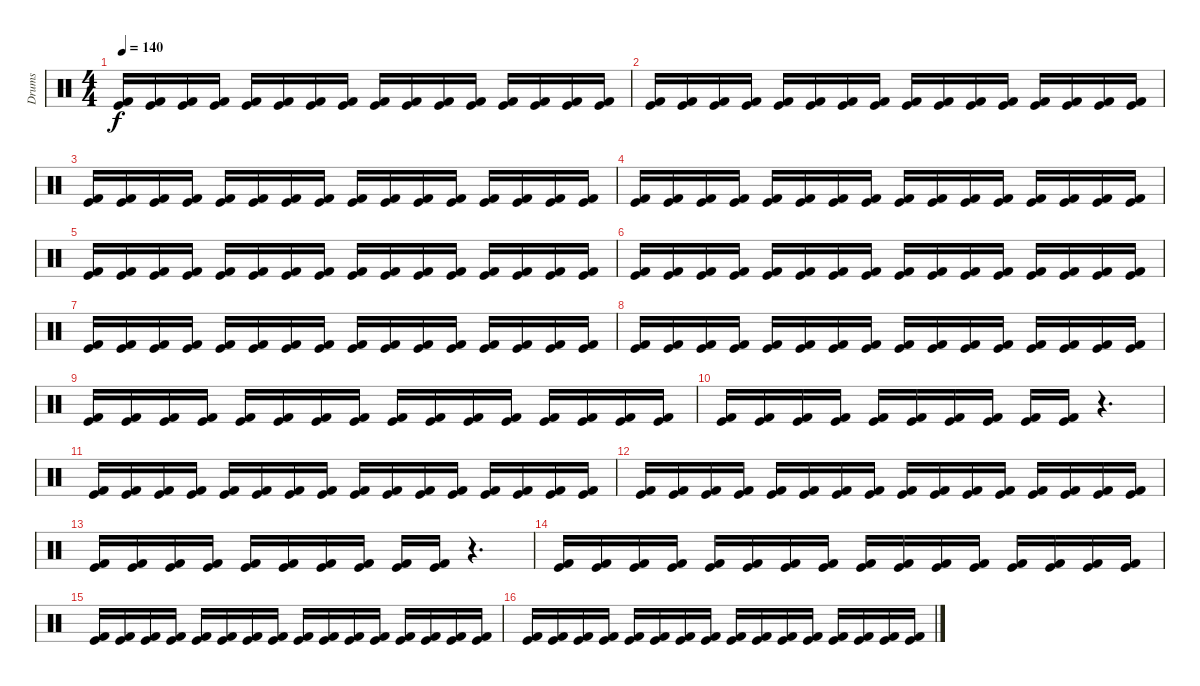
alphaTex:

\track ("Drums" "Drums") {instrument percussion}
\staff {score}
\articulation defaults
\ts (4 4)
\tempo 140
\clef neutral
\ks c
("Kick (hit) 2" "Kick (hit)").16{dy f} ("Kick (hit) 2" "Kick (hit)").16 ("Kick (hit) 2" "Kick (hit)").16 ("Kick (hit) 2" "Kick (hit)").16 ("Kick (hit) 2" "Kick (hit)").16 ("Kick (hit) 2" "Kick (hit)").16 ("Kick (hit) 2" "Kick (hit)").16 ("Kick (hit) 2" "Kick (hit)").16 ("Kick (hit) 2" "Kick (hit)").16 ("Kick (hit) 2" "Kick (hit)").16 ("Kick (hit) 2" "Kick (hit)").16 ("Kick (hit) 2" "Kick (hit)").16 ("Kick (hit) 2" "Kick (hit)").16 ("Kick (hit) 2" "Kick (hit)").16 ("Kick (hit) 2" "Kick (hit)").16 ("Kick (hit) 2" "Kick (hit)").16 |
("Kick (hit) 2" "Kick (hit)").16 ("Kick (hit) 2" "Kick (hit)").16 ("Kick (hit) 2" "Kick (hit)").16 ("Kick (hit) 2" "Kick (hit)").16 ("Kick (hit) 2" "Kick (hit)").16 ("Kick (hit) 2" "Kick (hit)").16 ("Kick (hit) 2" "Kick (hit)").16 ("Kick (hit) 2" "Kick (hit)").16 ("Kick (hit) 2" "Kick (hit)").16 ("Kick (hit) 2" "Kick (hit)").16 ("Kick (hit) 2" "Kick (hit)").16 ("Kick (hit) 2" "Kick (hit)").16 ("Kick (hit) 2" "Kick (hit)").16 ("Kick (hit) 2" "Kick (hit)").16 ("Kick (hit) 2" "Kick (hit)").16 ("Kick (hit) 2" "Kick (hit)").16 |
("Kick (hit) 2" "Kick (hit)").16 ("Kick (hit) 2" "Kick (hit)").16 ("Kick (hit) 2" "Kick (hit)").16 ("Kick (hit) 2" "Kick (hit)").16 ("Kick (hit) 2" "Kick (hit)").16 ("Kick (hit) 2" "Kick (hit)").16 ("Kick (hit) 2" "Kick (hit)").16 ("Kick (hit) 2" "Kick (hit)").16 ("Kick (hit) 2" "Kick (hit)").16 ("Kick (hit) 2" "Kick (hit)").16 ("Kick (hit) 2" "Kick (hit)").16 ("Kick (hit) 2" "Kick (hit)").16 ("Kick (hit) 2" "Kick (hit)").16 ("Kick (hit) 2" "Kick (hit)").16 ("Kick (hit) 2" "Kick (hit)").16 ("Kick (hit) 2" "Kick (hit)").16 |
("Kick (hit) 2" "Kick (hit)").16 ("Kick (hit) 2" "Kick (hit)").16 ("Kick (hit) 2" "Kick (hit)").16 ("Kick (hit) 2" "Kick (hit)").16 ("Kick (hit) 2" "Kick (hit)").16 ("Kick (hit) 2" "Kick (hit)").16 ("Kick (hit) 2" "Kick (hit)").16 ("Kick (hit) 2" "Kick (hit)").16 ("Kick (hit) 2" "Kick (hit)").16 ("Kick (hit) 2" "Kick (hit)").16 ("Kick (hit) 2" "Kick (hit)").16 ("Kick (hit) 2" "Kick (hit)").16 ("Kick (hit) 2" "Kick (hit)").16 ("Kick (hit) 2" "Kick (hit)").16 ("Kick (hit) 2" "Kick (hit)").16 ("Kick (hit) 2" "Kick (hit)").16 |
("Kick (hit) 2" "Kick (hit)").16 ("Kick (hit) 2" "Kick (hit)").16 ("Kick (hit) 2" "Kick (hit)").16 ("Kick (hit) 2" "Kick (hit)").16 ("Kick (hit) 2" "Kick (hit)").16 ("Kick (hit) 2" "Kick (hit)").16 ("Kick (hit) 2" "Kick (hit)").16 ("Kick (hit) 2" "Kick (hit)").16 ("Kick (hit) 2" "Kick (hit)").16 ("Kick (hit) 2" "Kick (hit)").16 ("Kick (hit) 2" "Kick (hit)").16 ("Kick (hit) 2" "Kick (hit)").16 ("Kick (hit) 2" "Kick (hit)").16 ("Kick (hit) 2" "Kick (hit)").16 ("Kick (hit) 2" "Kick (hit)").16 ("Kick (hit) 2" "Kick (hit)").16 |
("Kick (hit) 2" "Kick (hit)").16 ("Kick (hit) 2" "Kick (hit)").16 ("Kick (hit) 2" "Kick (hit)").16 ("Kick (hit) 2" "Kick (hit)").16 ("Kick (hit) 2" "Kick (hit)").16 ("Kick (hit) 2" "Kick (hit)").16 ("Kick (hit) 2" "Kick (hit)").16 ("Kick (hit) 2" "Kick (hit)").16 ("Kick (hit) 2" "Kick (hit)").16 ("Kick (hit) 2" "Kick (hit)").16 ("Kick (hit) 2" "Kick (hit)").16 ("Kick (hit) 2" "Kick (hit)").16 ("Kick (hit) 2" "Kick (hit)").16 ("Kick (hit) 2" "Kick (hit)").16 ("Kick (hit) 2" "Kick (hit)").16 ("Kick (hit) 2" "Kick (hit)").16 |
("Kick (hit) 2" "Kick (hit)").16 ("Kick (hit) 2" "Kick (hit)").16 ("Kick (hit) 2" "Kick (hit)").16 ("Kick (hit) 2" "Kick (hit)").16 ("Kick (hit) 2" "Kick (hit)").16 ("Kick (hit) 2" "Kick (hit)").16 ("Kick (hit) 2" "Kick (hit)").16 ("Kick (hit) 2" "Kick (hit)").16 ("Kick (hit) 2" "Kick (hit)").16 ("Kick (hit) 2" "Kick (hit)").16 ("Kick (hit) 2" "Kick (hit)").16 ("Kick (hit) 2" "Kick (hit)").16 ("Kick (hit) 2" "Kick (hit)").16 ("Kick (hit) 2" "Kick (hit)").16 ("Kick (hit) 2" "Kick (hit)").16 ("Kick (hit) 2" "Kick (hit)").16 |
("Kick (hit) 2" "Kick (hit)").16 ("Kick (hit) 2" "Kick (hit)").16 ("Kick (hit) 2" "Kick (hit)").16 ("Kick (hit) 2" "Kick (hit)").16 ("Kick (hit) 2" "Kick (hit)").16 ("Kick (hit) 2" "Kick (hit)").16 ("Kick (hit) 2" "Kick (hit)").16 ("Kick (hit) 2" "Kick (hit)").16 ("Kick (hit) 2" "Kick (hit)").16 ("Kick (hit) 2" "Kick (hit)").16 ("Kick (hit) 2" "Kick (hit)").16 ("Kick (hit) 2" "Kick (hit)").16 ("Kick (hit) 2" "Kick (hit)").16 ("Kick (hit) 2" "Kick (hit)").16 ("Kick (hit) 2" "Kick (hit)").16 ("Kick (hit) 2" "Kick (hit)").16 |
("Kick (hit) 2" "Kick (hit)").16 ("Kick (hit) 2" "Kick (hit)").16 ("Kick (hit) 2" "Kick (hit)").16 ("Kick (hit) 2" "Kick (hit)").16 ("Kick (hit) 2" "Kick (hit)").16 ("Kick (hit) 2" "Kick (hit)").16 ("Kick (hit) 2" "Kick (hit)").16 ("Kick (hit) 2" "Kick (hit)").16 ("Kick (hit) 2" "Kick (hit)").16 ("Kick (hit) 2" "Kick (hit)").16 ("Kick (hit) 2" "Kick (hit)").16 ("Kick (hit) 2" "Kick (hit)").16 ("Kick (hit) 2" "Kick (hit)").16 ("Kick (hit) 2" "Kick (hit)").16 ("Kick (hit) 2" "Kick (hit)").16 ("Kick (hit) 2" "Kick (hit)").16 |
("Kick (hit) 2" "Kick (hit)").16 ("Kick (hit) 2" "Kick (hit)").16 ("Kick (hit) 2" "Kick (hit)").16 ("Kick (hit) 2" "Kick (hit)").16 ("Kick (hit) 2" "Kick (hit)").16 ("Kick (hit) 2" "Kick (hit)").16 ("Kick (hit) 2" "Kick (hit)").16 ("Kick (hit) 2" "Kick (hit)").16 ("Kick (hit) 2" "Kick (hit)").16 ("Kick (hit) 2" "Kick (hit)").16 r.4{d} |
("Kick (hit) 2" "Kick (hit)").16 ("Kick (hit) 2" "Kick (hit)").16 ("Kick (hit) 2" "Kick (hit)").16 ("Kick (hit) 2" "Kick (hit)").16 ("Kick (hit) 2" "Kick (hit)").16 ("Kick (hit) 2" "Kick (hit)").16 ("Kick (hit) 2" "Kick (hit)").16 ("Kick (hit) 2" "Kick (hit)").16 ("Kick (hit) 2" "Kick (hit)").16 ("Kick (hit) 2" "Kick (hit)").16 ("Kick (hit) 2" "Kick (hit)").16 ("Kick (hit) 2" "Kick (hit)").16 ("Kick (hit) 2" "Kick (hit)").16 ("Kick (hit) 2" "Kick (hit)").16 ("Kick (hit) 2" "Kick (hit)").16 ("Kick (hit) 2" "Kick (hit)").16 |
("Kick (hit) 2" "Kick (hit)").16 ("Kick (hit) 2" "Kick (hit)").16 ("Kick (hit) 2" "Kick (hit)").16 ("Kick (hit) 2" "Kick (hit)").16 ("Kick (hit) 2" "Kick (hit)").16 ("Kick (hit) 2" "Kick (hit)").16 ("Kick (hit) 2" "Kick (hit)").16 ("Kick (hit) 2" "Kick (hit)").16 ("Kick (hit) 2" "Kick (hit)").16 ("Kick (hit) 2" "Kick (hit)").16 ("Kick (hit) 2" "Kick (hit)").16 ("Kick (hit) 2" "Kick (hit)").16 ("Kick (hit) 2" "Kick (hit)").16 ("Kick (hit) 2" "Kick (hit)").16 ("Kick (hit) 2" "Kick (hit)").16 ("Kick (hit) 2" "Kick (hit)").16 |
("Kick (hit) 2" "Kick (hit)").16 ("Kick (hit) 2" "Kick (hit)").16 ("Kick (hit) 2" "Kick (hit)").16 ("Kick (hit) 2" "Kick (hit)").16 ("Kick (hit) 2" "Kick (hit)").16 ("Kick (hit) 2" "Kick (hit)").16 ("Kick (hit) 2" "Kick (hit)").16 ("Kick (hit) 2" "Kick (hit)").16 ("Kick (hit) 2" "Kick (hit)").16 ("Kick (hit) 2" "Kick (hit)").16 r.4{d} |
("Kick (hit) 2" "Kick (hit)").16 ("Kick (hit) 2" "Kick (hit)").16 ("Kick (hit) 2" "Kick (hit)").16 ("Kick (hit) 2" "Kick (hit)").16 ("Kick (hit) 2" "Kick (hit)").16 ("Kick (hit) 2" "Kick (hit)").16 ("Kick (hit) 2" "Kick (hit)").16 ("Kick (hit) 2" "Kick (hit)").16 ("Kick (hit) 2" "Kick (hit)").16 ("Kick (hit) 2" "Kick (hit)").16 ("Kick (hit) 2" "Kick (hit)").16 ("Kick (hit) 2" "Kick (hit)").16 ("Kick (hit) 2" "Kick (hit)").16 ("Kick (hit) 2" "Kick (hit)").16 ("Kick (hit) 2" "Kick (hit)").16 ("Kick (hit) 2" "Kick (hit)").16 |
("Kick (hit) 2" "Kick (hit)").16 ("Kick (hit) 2" "Kick (hit)").16 ("Kick (hit) 2" "Kick (hit)").16 ("Kick (hit) 2" "Kick (hit)").16 ("Kick (hit) 2" "Kick (hit)").16 ("Kick (hit) 2" "Kick (hit)").16 ("Kick (hit) 2" "Kick (hit)").16 ("Kick (hit) 2" "Kick (hit)").16 ("Kick (hit) 2" "Kick (hit)").16 ("Kick (hit) 2" "Kick (hit)").16 ("Kick (hit) 2" "Kick (hit)").16 ("Kick (hit) 2" "Kick (hit)").16 ("Kick (hit) 2" "Kick (hit)").16 ("Kick (hit) 2" "Kick (hit)").16 ("Kick (hit) 2" "Kick (hit)").16 ("Kick (hit) 2" "Kick (hit)").16 |
("Kick (hit) 2" "Kick (hit)").16 ("Kick (hit) 2" "Kick (hit)").16 ("Kick (hit) 2" "Kick (hit)").16 ("Kick (hit) 2" "Kick (hit)").16 ("Kick (hit) 2" "Kick (hit)").16 ("Kick (hit) 2" "Kick (hit)").16 ("Kick (hit) 2" "Kick (hit)").16 ("Kick (hit) 2" "Kick (hit)").16 ("Kick (hit) 2" "Kick (hit)").16 ("Kick (hit) 2" "Kick (hit)").16 ("Kick (hit) 2" "Kick (hit)").16 ("Kick (hit) 2" "Kick (hit)").16 ("Kick (hit) 2" "Kick (hit)").16 ("Kick (hit) 2" "Kick (hit)").16 ("Kick (hit) 2" "Kick (hit)").16 ("Kick (hit) 2" "Kick (hit)").16
